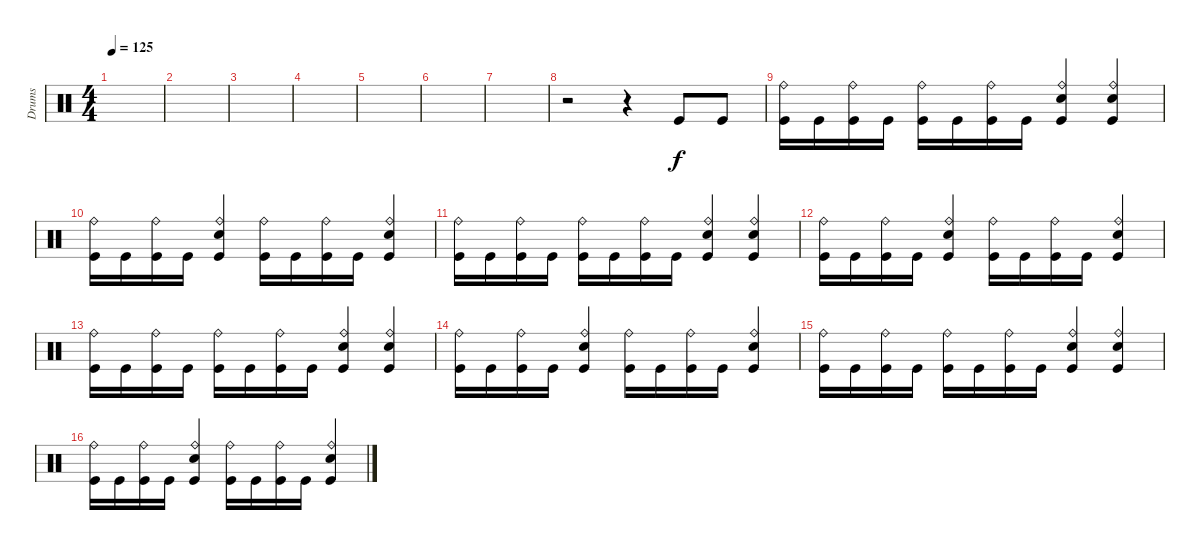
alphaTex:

\track ("Drums" "Drums") {instrument percussion}
\staff {score}
\articulation defaults
\ts (4 4)
\tempo 125
\clef neutral
\ks c
|
|
|
|
|
|
|
r.2 r.4 "Kick (hit)".8 "Kick (hit)".8 |
("Kick (hit)" "Ride (bell)").16 "Kick (hit)".16 ("Kick (hit)" "Ride (bell)").16 "Kick (hit)".16 ("Kick (hit)" "Ride (bell)").16 "Kick (hit)".16 ("Kick (hit)" "Ride (bell)").16 "Kick (hit)".16 ("Kick (hit)" "Snare (hit) 2" "Ride (bell)").4 ("Kick (hit)" "Snare (hit) 2" "Ride (bell)").4 |
("Kick (hit)" "Ride (bell)").16 "Kick (hit)".16 ("Kick (hit)" "Ride (bell)").16 "Kick (hit)".16 ("Kick (hit)" "Snare (hit) 2" "Ride (bell)").4 ("Kick (hit)" "Ride (bell)").16 "Kick (hit)".16 ("Kick (hit)" "Ride (bell)").16 "Kick (hit)".16 ("Kick (hit)" "Snare (hit) 2" "Ride (bell)").4 |
("Kick (hit)" "Ride (bell)").16 "Kick (hit)".16 ("Kick (hit)" "Ride (bell)").16 "Kick (hit)".16 ("Kick (hit)" "Ride (bell)").16 "Kick (hit)".16 ("Kick (hit)" "Ride (bell)").16 "Kick (hit)".16 ("Kick (hit)" "Snare (hit) 2" "Ride (bell)").4 ("Kick (hit)" "Snare (hit) 2" "Ride (bell)").4 |
("Kick (hit)" "Ride (bell)").16 "Kick (hit)".16 ("Kick (hit)" "Ride (bell)").16 "Kick (hit)".16 ("Kick (hit)" "Snare (hit) 2" "Ride (bell)").4 ("Kick (hit)" "Ride (bell)").16 "Kick (hit)".16 ("Kick (hit)" "Ride (bell)").16 "Kick (hit)".16 ("Kick (hit)" "Snare (hit) 2" "Ride (bell)").4 |
("Kick (hit)" "Ride (bell)").16 "Kick (hit)".16 ("Kick (hit)" "Ride (bell)").16 "Kick (hit)".16 ("Kick (hit)" "Ride (bell)").16 "Kick (hit)".16 ("Kick (hit)" "Ride (bell)").16 "Kick (hit)".16 ("Kick (hit)" "Snare (hit) 2" "Ride (bell)").4 ("Kick (hit)" "Snare (hit) 2" "Ride (bell)").4 |
("Kick (hit)" "Ride (bell)").16 "Kick (hit)".16 ("Kick (hit)" "Ride (bell)").16 "Kick (hit)".16 ("Kick (hit)" "Snare (hit) 2" "Ride (bell)").4 ("Kick (hit)" "Ride (bell)").16 "Kick (hit)".16 ("Kick (hit)" "Ride (bell)").16 "Kick (hit)".16 ("Kick (hit)" "Snare (hit) 2" "Ride (bell)").4 |
("Kick (hit)" "Ride (bell)").16 "Kick (hit)".16 ("Kick (hit)" "Ride (bell)").16 "Kick (hit)".16 ("Kick (hit)" "Ride (bell)").16 "Kick (hit)".16 ("Kick (hit)" "Ride (bell)").16 "Kick (hit)".16 ("Kick (hit)" "Snare (hit) 2" "Ride (bell)").4 ("Kick (hit)" "Snare (hit) 2" "Ride (bell)").4 |
("Kick (hit)" "Ride (bell)").16 "Kick (hit)".16 ("Kick (hit)" "Ride (bell)").16 "Kick (hit)".16 ("Kick (hit)" "Snare (hit) 2" "Ride (bell)").4 ("Kick (hit)" "Ride (bell)").16 "Kick (hit)".16 ("Kick (hit)" "Ride (bell)").16 "Kick (hit)".16 ("Kick (hit)" "Snare (hit) 2" "Ride (bell)").4
